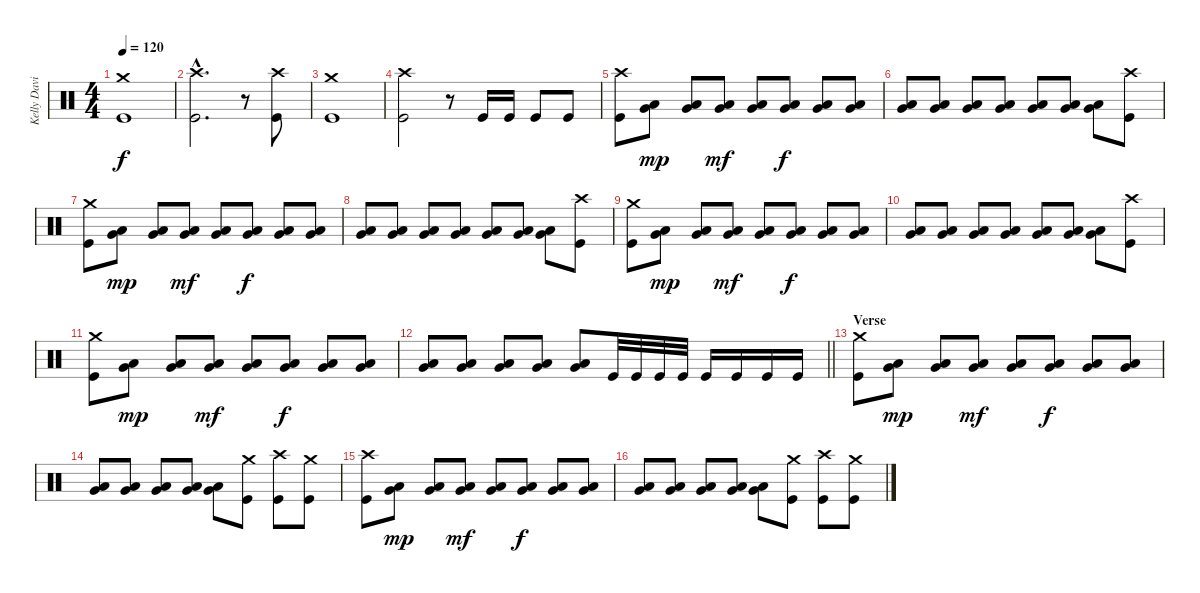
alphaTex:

\track ("Kelly David Smith" "Kelly Davi") {instrument percussion}
\staff {score}
\articulation defaults
\ts (4 4)
\tempo 120
\clef neutral
\ks c
("Crash medium (hit)" "Kick (hit)").1{dy f} |
("Crash high (hit)"{hac} "Kick (hit)"{hac}).2{d} r.8 ("Crash high (hit)" "Kick (hit)").8 |
("Crash medium (hit)" "Kick (hit)").1 |
("Crash high (hit)" "Kick (hit)").2 r.8 "Kick (hit)".16 "Kick (hit)".16 "Kick (hit)".8 "Kick (hit)".8 |
("Crash high (hit)" "Kick (hit)").8 ("Low Tom (hit)" "Very Low Tom (hit)").8{dy mp} ("Low Tom (hit)" "Very Low Tom (hit)").8 ("Low Tom (hit)" "Very Low Tom (hit)").8{dy mf} ("Low Tom (hit)" "Very Low Tom (hit)").8 ("Low Tom (hit)" "Very Low Tom (hit)").8{dy f} ("Low Tom (hit)" "Very Low Tom (hit)").8 ("Low Tom (hit)" "Very Low Tom (hit)").8 |
("Low Tom (hit)" "Very Low Tom (hit)").8 ("Low Tom (hit)" "Very Low Tom (hit)").8 ("Low Tom (hit)" "Very Low Tom (hit)").8 ("Low Tom (hit)" "Very Low Tom (hit)").8 ("Low Tom (hit)" "Very Low Tom (hit)").8 ("Low Tom (hit)" "Very Low Tom (hit)").8 ("Low Tom (hit)" "Very Low Tom (hit)").8 ("Crash high (hit)" "Kick (hit)").8 |
("Crash medium (hit)" "Kick (hit)").8 ("Low Tom (hit)" "Very Low Tom (hit)").8{dy mp} ("Low Tom (hit)" "Very Low Tom (hit)").8 ("Low Tom (hit)" "Very Low Tom (hit)").8{dy mf} ("Low Tom (hit)" "Very Low Tom (hit)").8 ("Low Tom (hit)" "Very Low Tom (hit)").8{dy f} ("Low Tom (hit)" "Very Low Tom (hit)").8 ("Low Tom (hit)" "Very Low Tom (hit)").8 |
("Low Tom (hit)" "Very Low Tom (hit)").8 ("Low Tom (hit)" "Very Low Tom (hit)").8 ("Low Tom (hit)" "Very Low Tom (hit)").8 ("Low Tom (hit)" "Very Low Tom (hit)").8 ("Low Tom (hit)" "Very Low Tom (hit)").8 ("Low Tom (hit)" "Very Low Tom (hit)").8 ("Low Tom (hit)" "Very Low Tom (hit)").8 ("Crash high (hit)" "Kick (hit)").8 |
("Crash medium (hit)" "Kick (hit)").8 ("Low Tom (hit)" "Very Low Tom (hit)").8{dy mp} ("Low Tom (hit)" "Very Low Tom (hit)").8 ("Low Tom (hit)" "Very Low Tom (hit)").8{dy mf} ("Low Tom (hit)" "Very Low Tom (hit)").8 ("Low Tom (hit)" "Very Low Tom (hit)").8{dy f} ("Low Tom (hit)" "Very Low Tom (hit)").8 ("Low Tom (hit)" "Very Low Tom (hit)").8 |
("Low Tom (hit)" "Very Low Tom (hit)").8 ("Low Tom (hit)" "Very Low Tom (hit)").8 ("Low Tom (hit)" "Very Low Tom (hit)").8 ("Low Tom (hit)" "Very Low Tom (hit)").8 ("Low Tom (hit)" "Very Low Tom (hit)").8 ("Low Tom (hit)" "Very Low Tom (hit)").8 ("Low Tom (hit)" "Very Low Tom (hit)").8 ("Crash high (hit)" "Kick (hit)").8 |
("Crash medium (hit)" "Kick (hit)").8 ("Low Tom (hit)" "Very Low Tom (hit)").8{dy mp} ("Low Tom (hit)" "Very Low Tom (hit)").8 ("Low Tom (hit)" "Very Low Tom (hit)").8{dy mf} ("Low Tom (hit)" "Very Low Tom (hit)").8 ("Low Tom (hit)" "Very Low Tom (hit)").8{dy f} ("Low Tom (hit)" "Very Low Tom (hit)").8 ("Low Tom (hit)" "Very Low Tom (hit)").8 |
\barLineRight lightlight
("Low Tom (hit)" "Very Low Tom (hit)").8 ("Low Tom (hit)" "Very Low Tom (hit)").8 ("Low Tom (hit)" "Very Low Tom (hit)").8 ("Low Tom (hit)" "Very Low Tom (hit)").8 ("Low Tom (hit)" "Very Low Tom (hit)").8 "Kick (hit)".32 "Kick (hit)".32 "Kick (hit)".32 "Kick (hit)".32 "Kick (hit)".16 "Kick (hit)".16 "Kick (hit)".16 "Kick (hit)".16 |
\section ("" "Verse")
("Crash medium (hit)" "Kick (hit)").8 ("Low Tom (hit)" "Very Low Tom (hit)").8{dy mp} ("Low Tom (hit)" "Very Low Tom (hit)").8 ("Low Tom (hit)" "Very Low Tom (hit)").8{dy mf} ("Low Tom (hit)" "Very Low Tom (hit)").8 ("Low Tom (hit)" "Very Low Tom (hit)").8{dy f} ("Low Tom (hit)" "Very Low Tom (hit)").8 ("Low Tom (hit)" "Very Low Tom (hit)").8 |
("Low Tom (hit)" "Very Low Tom (hit)").8 ("Low Tom (hit)" "Very Low Tom (hit)").8 ("Low Tom (hit)" "Very Low Tom (hit)").8 ("Low Tom (hit)" "Very Low Tom (hit)").8 ("Low Tom (hit)" "Very Low Tom (hit)").8 ("Crash medium (hit)" "Kick (hit)").8 ("Crash high (hit)" "Kick (hit)").8 ("Crash medium (hit)" "Kick (hit)").8 |
("Crash high (hit)" "Kick (hit)").8 ("Low Tom (hit)" "Very Low Tom (hit)").8{dy mp} ("Low Tom (hit)" "Very Low Tom (hit)").8 ("Low Tom (hit)" "Very Low Tom (hit)").8{dy mf} ("Low Tom (hit)" "Very Low Tom (hit)").8 ("Low Tom (hit)" "Very Low Tom (hit)").8{dy f} ("Low Tom (hit)" "Very Low Tom (hit)").8 ("Low Tom (hit)" "Very Low Tom (hit)").8 |
("Low Tom (hit)" "Very Low Tom (hit)").8 ("Low Tom (hit)" "Very Low Tom (hit)").8 ("Low Tom (hit)" "Very Low Tom (hit)").8 ("Low Tom (hit)" "Very Low Tom (hit)").8 ("Low Tom (hit)" "Very Low Tom (hit)").8 ("Crash medium (hit)" "Kick (hit)").8 ("Crash high (hit)" "Kick (hit)").8 ("Crash medium (hit)" "Kick (hit)").8
